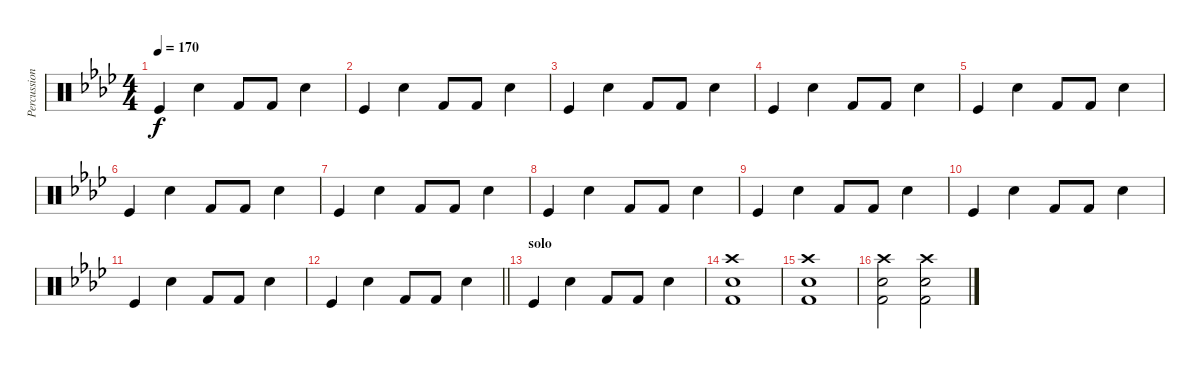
\track ("Percussions" "Percussion") {instrument percussion}
\staff {score}
\articulation defaults
\ts (4 4)
\tempo 170
\clef neutral
\ks ab "Kick (hit)".4{dy f} "Snare (hit) 2".4 "Kick (hit) 2".8 "Kick (hit) 2".8 "Snare (hit) 2".4
|
"Kick (hit)".4 "Snare (hit) 2".4 "Kick (hit) 2".8 "Kick (hit) 2".8 "Snare (hit) 2".4 |
"Kick (hit)".4 "Snare (hit) 2".4 "Kick (hit) 2".8 "Kick (hit) 2".8 "Snare (hit) 2".4 |
"Kick (hit)".4 "Snare (hit) 2".4 "Kick (hit) 2".8 "Kick (hit) 2".8 "Snare (hit) 2".4 |
"Kick (hit)".4 "Snare (hit) 2".4 "Kick (hit) 2".8 "Kick (hit) 2".8 "Snare (hit) 2".4 |
"Kick (hit)".4 "Snare (hit) 2".4 "Kick (hit) 2".8 "Kick (hit) 2".8 "Snare (hit) 2".4 |
"Kick (hit)".4 "Snare (hit) 2".4 "Kick (hit) 2".8 "Kick (hit) 2".8 "Snare (hit) 2".4 |
"Kick (hit)".4 "Snare (hit) 2".4 "Kick (hit) 2".8 "Kick (hit) 2".8 "Snare (hit) 2".4 |
"Kick (hit)".4 "Snare (hit) 2".4 "Kick (hit) 2".8 "Kick (hit) 2".8 "Snare (hit) 2".4 |
"Kick (hit)".4 "Snare (hit) 2".4 "Kick (hit) 2".8 "Kick (hit) 2".8 "Snare (hit) 2".4 |
"Kick (hit)".4 "Snare (hit) 2".4 "Kick (hit) 2".8 "Kick (hit) 2".8 "Snare (hit) 2".4 |
\barLineRight lightlight "Kick (hit)".4 "Snare (hit) 2".4 "Kick (hit) 2".8 "Kick (hit) 2".8 "Snare (hit) 2".4
|
\section ("" "solo")
"Kick (hit)".4 "Snare (hit) 2".4 "Kick (hit) 2".8 "Kick (hit) 2".8 "Snare (hit) 2".4 |
("Crash high (hit)" "Snare (hit) 2" "Kick (hit) 2").1 |
("Crash high (hit)" "Snare (hit) 2" "Kick (hit) 2").1 |
("Crash high (hit)" "Snare (hit) 2" "Kick (hit) 2").2 ("Crash high (hit)" "Snare (hit) 2" "Kick (hit) 2").2
